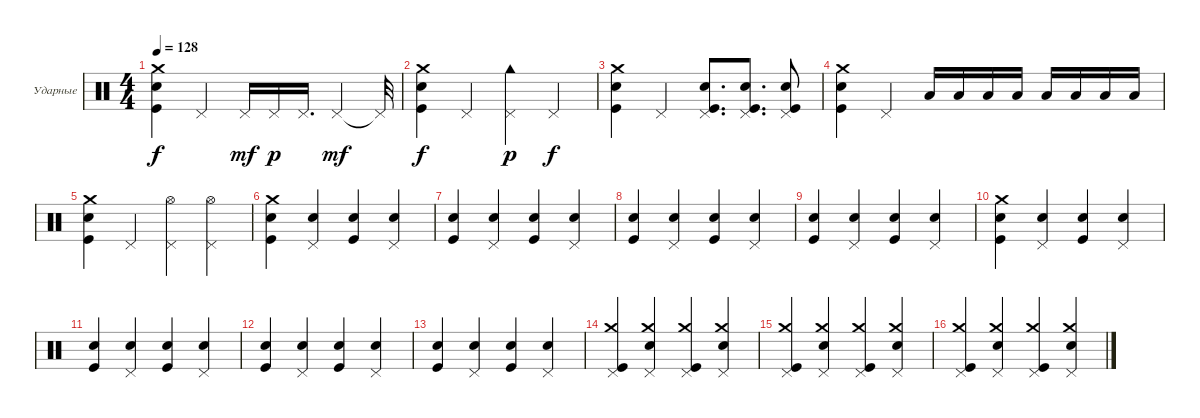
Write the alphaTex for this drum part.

\defaultSystemsLayout 4
\bracketExtendMode groupsimilarinstruments
\firstSystemTrackNameOrientation horizontal
\otherSystemsTrackNameOrientation horizontal
\track ("Е. Кулаков" "Ударные") {instrument percussion}
\staff {score}
\articulation defaults
\ts (4 4)
\tempo 128
\clef neutral
\ks c
("Snare (hit) 2" "Kick (hit)" "Crash medium (hit)").4{dy f} "Pedal Hi-Hat (hit)".4 "Pedal Hi-Hat (hit)".16{dy mf} "Pedal Hi-Hat (hit)".16{dy p} "Pedal Hi-Hat (hit)".16{d} "Pedal Hi-Hat (hit)".4{dy mf} "Pedal Hi-Hat (hit)"{t}.32 |
("Snare (hit) 2" "Kick (hit)" "Crash medium (hit)").4{dy f} "Pedal Hi-Hat (hit)".4 ("Pedal Hi-Hat (hit)" "Cowbell high (hit)").4{dy p} "Pedal Hi-Hat (hit)".4{dy f} |
("Snare (hit) 2" "Kick (hit)" "Crash medium (hit)").4 "Pedal Hi-Hat (hit)".4 ("Pedal Hi-Hat (hit)" "Kick (hit)" "Snare (hit) 2").8{d} ("Pedal Hi-Hat (hit)" "Kick (hit)" "Snare (hit) 2").8{d} ("Pedal Hi-Hat (hit)" "Kick (hit)" "Snare (hit) 2").8 |
("Snare (hit) 2" "Kick (hit)" "Crash medium (hit)").4 "Pedal Hi-Hat (hit)".4 "Low Tom (hit)".16 "Low Tom (hit)".16 "Low Tom (hit)".16 "Low Tom (hit)".16 "Low Tom (hit)".16 "Low Tom (hit)".16 "Low Tom (hit)".16 "Low Tom (hit)".16 |
("Snare (hit) 2" "Kick (hit)" "Crash medium (hit)").4 "Pedal Hi-Hat (hit)".4 ("Pedal Hi-Hat (hit)" "Hi-Hat (open)").4 ("Pedal Hi-Hat (hit)" "Hi-Hat (open)").4 |
("Snare (hit) 2" "Kick (hit)" "Crash medium (hit)").4 ("Pedal Hi-Hat (hit)" "Snare (hit) 2").4 ("Snare (hit) 2" "Kick (hit)").4 ("Pedal Hi-Hat (hit)" "Snare (hit) 2").4 |
("Snare (hit) 2" "Kick (hit)").4 ("Pedal Hi-Hat (hit)" "Snare (hit) 2").4 ("Snare (hit) 2" "Kick (hit)").4 ("Pedal Hi-Hat (hit)" "Snare (hit) 2").4 |
("Snare (hit) 2" "Kick (hit)").4 ("Pedal Hi-Hat (hit)" "Snare (hit) 2").4 ("Snare (hit) 2" "Kick (hit)").4 ("Pedal Hi-Hat (hit)" "Snare (hit) 2").4 |
("Snare (hit) 2" "Kick (hit)").4 ("Pedal Hi-Hat (hit)" "Snare (hit) 2").4 ("Snare (hit) 2" "Kick (hit)").4 ("Pedal Hi-Hat (hit)" "Snare (hit) 2").4 |
("Snare (hit) 2" "Kick (hit)" "Crash medium (hit)").4 ("Pedal Hi-Hat (hit)" "Snare (hit) 2").4 ("Snare (hit) 2" "Kick (hit)").4 ("Pedal Hi-Hat (hit)" "Snare (hit) 2").4 |
("Snare (hit) 2" "Kick (hit)").4 ("Pedal Hi-Hat (hit)" "Snare (hit) 2").4 ("Snare (hit) 2" "Kick (hit)").4 ("Pedal Hi-Hat (hit)" "Snare (hit) 2").4 |
("Snare (hit) 2" "Kick (hit)").4 ("Pedal Hi-Hat (hit)" "Snare (hit) 2").4 ("Snare (hit) 2" "Kick (hit)").4 ("Pedal Hi-Hat (hit)" "Snare (hit) 2").4 |
("Snare (hit) 2" "Kick (hit)").4 ("Pedal Hi-Hat (hit)" "Snare (hit) 2").4 ("Snare (hit) 2" "Kick (hit)").4 ("Pedal Hi-Hat (hit)" "Snare (hit) 2").4 |
("Kick (hit)" "Crash medium (hit)" "Pedal Hi-Hat (hit)").4 ("Snare (hit) 2" "Crash medium (hit)" "Pedal Hi-Hat (hit)").4 ("Kick (hit)" "Crash medium (hit)" "Pedal Hi-Hat (hit)").4 ("Snare (hit) 2" "Crash medium (hit)" "Pedal Hi-Hat (hit)").4 |
("Kick (hit)" "Crash medium (hit)" "Pedal Hi-Hat (hit)").4 ("Snare (hit) 2" "Crash medium (hit)" "Pedal Hi-Hat (hit)").4 ("Kick (hit)" "Crash medium (hit)" "Pedal Hi-Hat (hit)").4 ("Snare (hit) 2" "Crash medium (hit)" "Pedal Hi-Hat (hit)").4 |
("Kick (hit)" "Crash medium (hit)" "Pedal Hi-Hat (hit)").4 ("Snare (hit) 2" "Crash medium (hit)" "Pedal Hi-Hat (hit)").4 ("Kick (hit)" "Crash medium (hit)" "Pedal Hi-Hat (hit)").4 ("Snare (hit) 2" "Crash medium (hit)" "Pedal Hi-Hat (hit)").4
